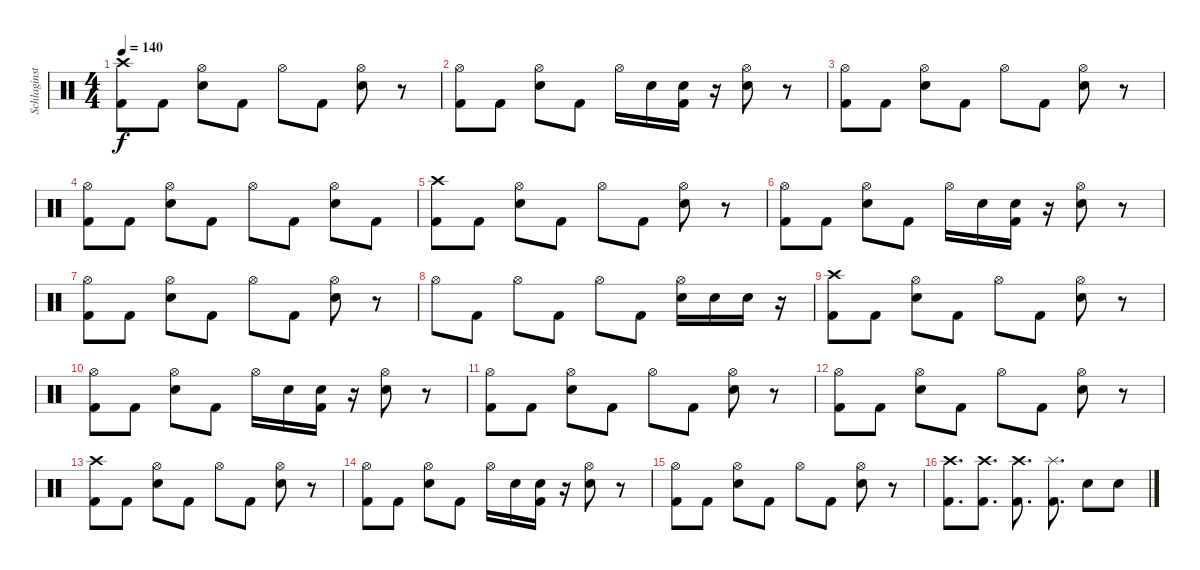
\track ("Schlaginstrumente - Auswahl" "Schlaginst") {instrument percussion}
\staff {score}
\articulation defaults
\ts (4 4)
\tempo 140
\clef neutral
\ks c
("Crash high (hit)" "Kick (hit) 2").8{dy f} "Kick (hit) 2".8 ("Hi-Hat (open)" "Snare (hit) 2").8 "Kick (hit) 2".8 "Hi-Hat (open)".8 "Kick (hit) 2".8 ("Hi-Hat (open)" "Snare (hit) 2").8 r.8 |
("Hi-Hat (open)" "Kick (hit) 2").8 "Kick (hit) 2".8 ("Hi-Hat (open)" "Snare (hit) 2").8 "Kick (hit) 2".8 "Hi-Hat (open)".16 "Snare (hit) 2".16 ("Snare (hit) 2" "Kick (hit) 2").16 r.16 ("Hi-Hat (open)" "Snare (hit) 2").8 r.8 |
("Hi-Hat (open)" "Kick (hit) 2").8 "Kick (hit) 2".8 ("Hi-Hat (open)" "Snare (hit) 2").8 "Kick (hit) 2".8 "Hi-Hat (open)".8 "Kick (hit) 2".8 ("Hi-Hat (open)" "Snare (hit) 2").8 r.8 |
("Hi-Hat (open)" "Kick (hit) 2").8 "Kick (hit) 2".8 ("Hi-Hat (open)" "Snare (hit) 2").8 "Kick (hit) 2".8 "Hi-Hat (open)".8 "Kick (hit) 2".8 ("Hi-Hat (open)" "Snare (hit) 2").8 "Kick (hit) 2".8 |
("Crash high (hit)" "Kick (hit) 2").8 "Kick (hit) 2".8 ("Hi-Hat (open)" "Snare (hit) 2").8 "Kick (hit) 2".8 "Hi-Hat (open)".8 "Kick (hit) 2".8 ("Hi-Hat (open)" "Snare (hit) 2").8 r.8 |
("Hi-Hat (open)" "Kick (hit) 2").8 "Kick (hit) 2".8 ("Hi-Hat (open)" "Snare (hit) 2").8 "Kick (hit) 2".8 "Hi-Hat (open)".16 "Snare (hit) 2".16 ("Snare (hit) 2" "Kick (hit) 2").16 r.16 ("Hi-Hat (open)" "Snare (hit) 2").8 r.8 |
("Hi-Hat (open)" "Kick (hit) 2").8 "Kick (hit) 2".8 ("Hi-Hat (open)" "Snare (hit) 2").8 "Kick (hit) 2".8 "Hi-Hat (open)".8 "Kick (hit) 2".8 ("Hi-Hat (open)" "Snare (hit) 2").8 r.8 |
"Hi-Hat (open)".8 "Kick (hit) 2".8 "Hi-Hat (open)".8 "Kick (hit) 2".8 "Hi-Hat (open)".8 "Kick (hit) 2".8 ("Hi-Hat (open)" "Snare (hit) 2").16 "Snare (hit) 2".16 "Snare (hit) 2".16 r.16 |
("Crash high (hit)" "Kick (hit) 2").8 "Kick (hit) 2".8 ("Hi-Hat (open)" "Snare (hit) 2").8 "Kick (hit) 2".8 "Hi-Hat (open)".8 "Kick (hit) 2".8 ("Hi-Hat (open)" "Snare (hit) 2").8 r.8 |
("Hi-Hat (open)" "Kick (hit) 2").8 "Kick (hit) 2".8 ("Hi-Hat (open)" "Snare (hit) 2").8 "Kick (hit) 2".8 "Hi-Hat (open)".16 "Snare (hit) 2".16 ("Snare (hit) 2" "Kick (hit) 2").16 r.16 ("Hi-Hat (open)" "Snare (hit) 2").8 r.8 |
("Hi-Hat (open)" "Kick (hit) 2").8 "Kick (hit) 2".8 ("Hi-Hat (open)" "Snare (hit) 2").8 "Kick (hit) 2".8 "Hi-Hat (open)".8 "Kick (hit) 2".8 ("Hi-Hat (open)" "Snare (hit) 2").8 r.8 |
("Hi-Hat (open)" "Kick (hit) 2").8 "Kick (hit) 2".8 ("Hi-Hat (open)" "Snare (hit) 2").8 "Kick (hit) 2".8 "Hi-Hat (open)".8 "Kick (hit) 2".8 ("Hi-Hat (open)" "Snare (hit) 2").8 r.8 |
("Crash high (hit)" "Kick (hit) 2").8 "Kick (hit) 2".8 ("Hi-Hat (open)" "Snare (hit) 2").8 "Kick (hit) 2".8 "Hi-Hat (open)".8 "Kick (hit) 2".8 ("Hi-Hat (open)" "Snare (hit) 2").8 r.8 |
("Hi-Hat (open)" "Kick (hit) 2").8 "Kick (hit) 2".8 ("Hi-Hat (open)" "Snare (hit) 2").8 "Kick (hit) 2".8 "Hi-Hat (open)".16 "Snare (hit) 2".16 ("Snare (hit) 2" "Kick (hit) 2").16 r.16 ("Hi-Hat (open)" "Snare (hit) 2").8 r.8 |
("Hi-Hat (open)" "Kick (hit) 2").8 "Kick (hit) 2".8 ("Hi-Hat (open)" "Snare (hit) 2").8 "Kick (hit) 2".8 "Hi-Hat (open)".8 "Kick (hit) 2".8 ("Hi-Hat (open)" "Snare (hit) 2").8 r.8 |
("Crash high (hit)" "Kick (hit) 2").8{d} ("Crash high (hit)" "Kick (hit) 2").8{d} ("Crash high (hit)" "Kick (hit) 2").8{d} ("Splash (hit)" "Kick (hit) 2").8{d} "Snare (hit) 2".8 "Snare (hit) 2".8
